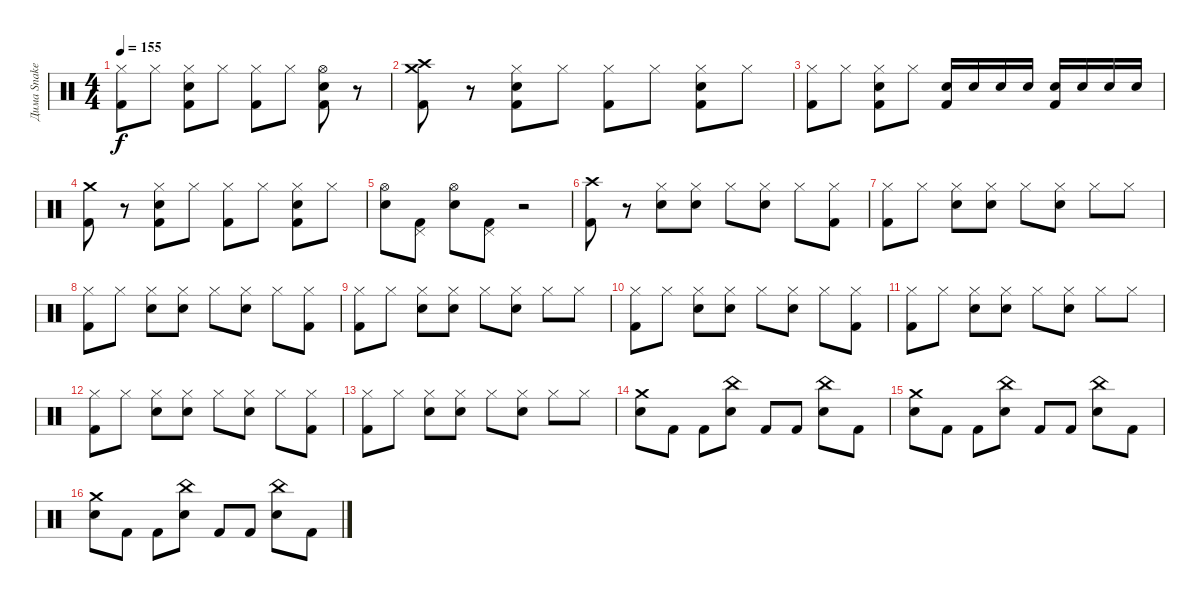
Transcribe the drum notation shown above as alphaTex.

\track ("Дима Snake Хакимов" "Дима Snake") {instrument percussion}
\staff {score}
\articulation defaults
\ts (4 4)
\tempo 155
\clef neutral
\ks c
("Hi-Hat (closed)" "Kick (hit) 2").8{dy f} "Hi-Hat (closed)".8 ("Hi-Hat (closed)" "Snare (hit) 2" "Kick (hit) 2").8 "Hi-Hat (closed)".8 ("Hi-Hat (closed)" "Kick (hit) 2").8 "Hi-Hat (closed)".8 ("Hi-Hat (open)" "Snare (hit) 2" "Kick (hit) 2").8 r.8 |
("Crash high (hit)" "Crash medium (hit)" "Kick (hit) 2").8 r.8 ("Hi-Hat (closed)" "Snare (hit) 2" "Kick (hit) 2").8 "Hi-Hat (closed)".8 ("Hi-Hat (closed)" "Kick (hit) 2").8 "Hi-Hat (closed)".8 ("Hi-Hat (closed)" "Snare (hit) 2" "Kick (hit) 2").8 "Hi-Hat (closed)".8 |
("Hi-Hat (closed)" "Kick (hit) 2").8 "Hi-Hat (closed)".8 ("Hi-Hat (closed)" "Snare (hit) 2" "Kick (hit) 2").8 "Hi-Hat (closed)".8 ("Snare (hit) 2" "Kick (hit) 2").16 "Snare (hit) 2".16 "Snare (hit) 2".16 "Snare (hit) 2".16 ("Snare (hit) 2" "Kick (hit) 2").16 "Snare (hit) 2".16 "Snare (hit) 2".16 "Snare (hit) 2".16 |
("Crash medium (hit)" "Kick (hit) 2").8 r.8 ("Hi-Hat (closed)" "Snare (hit) 2" "Kick (hit) 2").8 "Hi-Hat (closed)".8 ("Hi-Hat (closed)" "Kick (hit) 2").8 "Hi-Hat (closed)".8 ("Hi-Hat (closed)" "Snare (hit) 2" "Kick (hit) 2").8 "Hi-Hat (closed)".8 |
("Hi-Hat (open)" "Snare (hit) 2").8 ("Pedal Hi-Hat (hit)" "Kick (hit) 2").8 ("Hi-Hat (open)" "Snare (hit) 2").8 ("Pedal Hi-Hat (hit)" "Kick (hit) 2").8 r.2 |
("Crash high (hit)" "Kick (hit) 2").8 r.8 ("Hi-Hat (closed)" "Snare (hit) 2").8 ("Hi-Hat (closed)" "Snare (hit) 2").8 "Hi-Hat (closed)".8 ("Hi-Hat (closed)" "Snare (hit) 2").8 "Hi-Hat (closed)".8 ("Hi-Hat (closed)" "Kick (hit) 2").8 |
("Hi-Hat (closed)" "Kick (hit) 2").8 "Hi-Hat (closed)".8 ("Hi-Hat (closed)" "Snare (hit) 2").8 ("Hi-Hat (closed)" "Snare (hit) 2").8 "Hi-Hat (closed)".8 ("Hi-Hat (closed)" "Snare (hit) 2").8 "Hi-Hat (closed)".8 "Hi-Hat (closed)".8 |
("Hi-Hat (closed)" "Kick (hit) 2").8 "Hi-Hat (closed)".8 ("Hi-Hat (closed)" "Snare (hit) 2").8 ("Hi-Hat (closed)" "Snare (hit) 2").8 "Hi-Hat (closed)".8 ("Hi-Hat (closed)" "Snare (hit) 2").8 "Hi-Hat (closed)".8 ("Hi-Hat (closed)" "Kick (hit) 2").8 |
("Hi-Hat (closed)" "Kick (hit) 2").8 "Hi-Hat (closed)".8 ("Hi-Hat (closed)" "Snare (hit) 2").8 ("Hi-Hat (closed)" "Snare (hit) 2").8 "Hi-Hat (closed)".8 ("Hi-Hat (closed)" "Snare (hit) 2").8 "Hi-Hat (closed)".8 "Hi-Hat (closed)".8 |
("Hi-Hat (closed)" "Kick (hit) 2").8 "Hi-Hat (closed)".8 ("Hi-Hat (closed)" "Snare (hit) 2").8 ("Hi-Hat (closed)" "Snare (hit) 2").8 "Hi-Hat (closed)".8 ("Hi-Hat (closed)" "Snare (hit) 2").8 "Hi-Hat (closed)".8 ("Hi-Hat (closed)" "Kick (hit) 2").8 |
("Hi-Hat (closed)" "Kick (hit) 2").8 "Hi-Hat (closed)".8 ("Hi-Hat (closed)" "Snare (hit) 2").8 ("Hi-Hat (closed)" "Snare (hit) 2").8 "Hi-Hat (closed)".8 ("Hi-Hat (closed)" "Snare (hit) 2").8 "Hi-Hat (closed)".8 "Hi-Hat (closed)".8 |
("Hi-Hat (closed)" "Kick (hit) 2").8 "Hi-Hat (closed)".8 ("Hi-Hat (closed)" "Snare (hit) 2").8 ("Hi-Hat (closed)" "Snare (hit) 2").8 "Hi-Hat (closed)".8 ("Hi-Hat (closed)" "Snare (hit) 2").8 "Hi-Hat (closed)".8 ("Hi-Hat (closed)" "Kick (hit) 2").8 |
("Hi-Hat (closed)" "Kick (hit) 2").8 "Hi-Hat (closed)".8 ("Hi-Hat (closed)" "Snare (hit) 2").8 ("Hi-Hat (closed)" "Snare (hit) 2").8 "Hi-Hat (closed)".8 ("Hi-Hat (closed)" "Snare (hit) 2").8 "Hi-Hat (closed)".8 "Hi-Hat (closed)".8 |
("Crash medium (hit)" "Snare (hit) 2").8 "Kick (hit) 2".8 "Kick (hit) 2".8 ("China (hit)" "Snare (hit) 2").8 "Kick (hit) 2".8 "Kick (hit) 2".8 ("China (hit)" "Snare (hit) 2").8 "Kick (hit) 2".8 |
("Crash medium (hit)" "Snare (hit) 2").8 "Kick (hit) 2".8 "Kick (hit) 2".8 ("China (hit)" "Snare (hit) 2").8 "Kick (hit) 2".8 "Kick (hit) 2".8 ("China (hit)" "Snare (hit) 2").8 "Kick (hit) 2".8 |
("Crash medium (hit)" "Snare (hit) 2").8 "Kick (hit) 2".8 "Kick (hit) 2".8 ("China (hit)" "Snare (hit) 2").8 "Kick (hit) 2".8 "Kick (hit) 2".8 ("China (hit)" "Snare (hit) 2").8 "Kick (hit) 2".8
